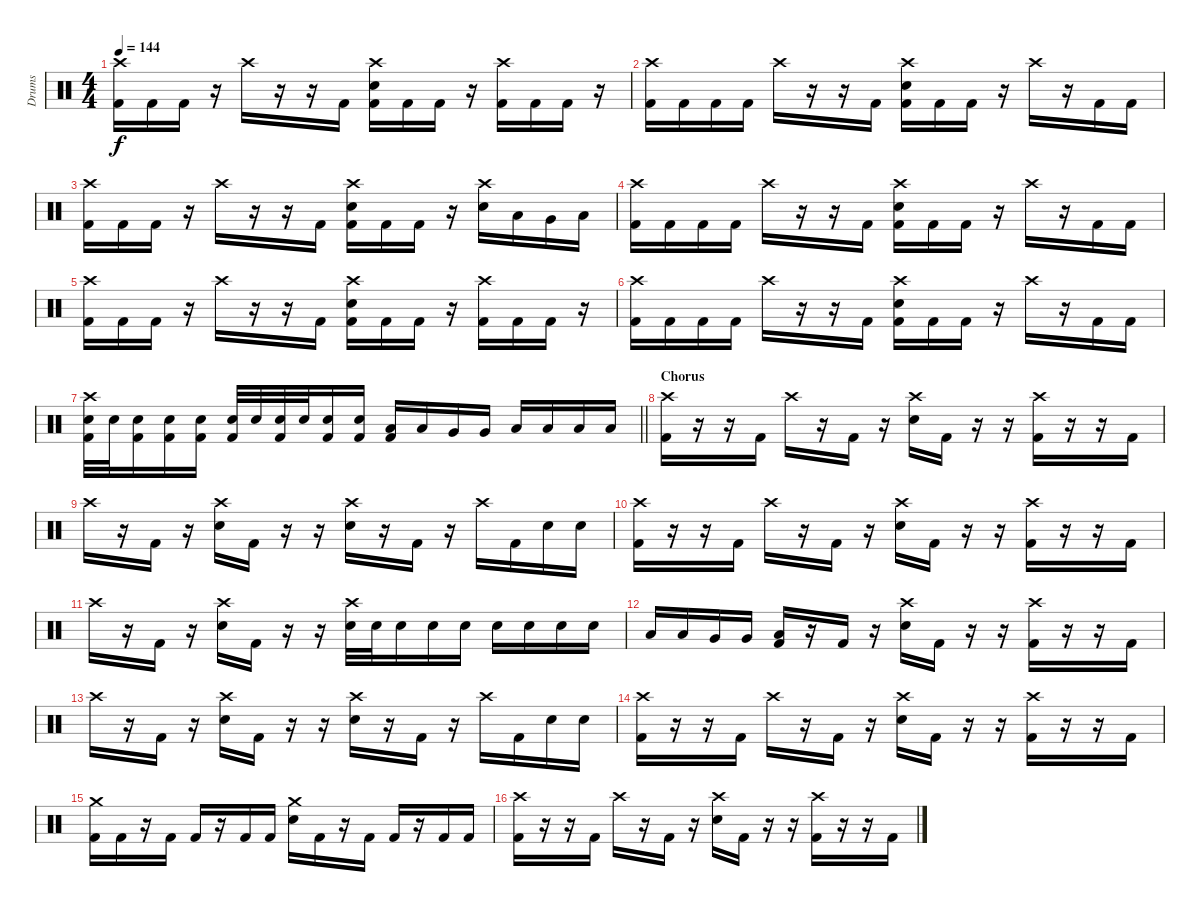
\track ("Drums" "Drums") {instrument percussion}
\staff {score}
\articulation defaults
\ts (4 4)
\tempo 144
\clef neutral
\ks c
("Crash high (hit)" "Kick (hit) 2").16{dy f} "Kick (hit) 2".16 "Kick (hit) 2".16 r.16 "Crash high (hit)".16 r.16 r.16 "Kick (hit) 2".16 ("Crash high (hit)" "Snare (hit) 2" "Kick (hit) 2").16 "Kick (hit) 2".16 "Kick (hit) 2".16 r.16 ("Crash high (hit)" "Kick (hit) 2").16 "Kick (hit) 2".16 "Kick (hit) 2".16 r.16 |
("Crash high (hit)" "Kick (hit) 2").16 "Kick (hit) 2".16 "Kick (hit) 2".16 "Kick (hit) 2".16 "Crash high (hit)".16 r.16 r.16 "Kick (hit) 2".16 ("Crash high (hit)" "Snare (hit) 2" "Kick (hit) 2").16 "Kick (hit) 2".16 "Kick (hit) 2".16 r.16 "Crash high (hit)".16 r.16 "Kick (hit) 2".16 "Kick (hit) 2".16 |
("Crash high (hit)" "Kick (hit) 2").16 "Kick (hit) 2".16 "Kick (hit) 2".16 r.16 "Crash high (hit)".16 r.16 r.16 "Kick (hit) 2".16 ("Crash high (hit)" "Snare (hit) 2" "Kick (hit) 2").16 "Kick (hit) 2".16 "Kick (hit) 2".16 r.16 ("Crash high (hit)" "Snare (hit) 2").16 "Low Tom (hit)".16 "Very Low Tom (hit)".16 "Low Floor Tom (hit)".16 |
("Crash high (hit)" "Kick (hit) 2").16 "Kick (hit) 2".16 "Kick (hit) 2".16 "Kick (hit) 2".16 "Crash high (hit)".16 r.16 r.16 "Kick (hit) 2".16 ("Crash high (hit)" "Snare (hit) 2" "Kick (hit) 2").16 "Kick (hit) 2".16 "Kick (hit) 2".16 r.16 "Crash high (hit)".16 r.16 "Kick (hit) 2".16 "Kick (hit) 2".16 |
("Crash high (hit)" "Kick (hit) 2").16 "Kick (hit) 2".16 "Kick (hit) 2".16 r.16 "Crash high (hit)".16 r.16 r.16 "Kick (hit) 2".16 ("Crash high (hit)" "Snare (hit) 2" "Kick (hit) 2").16 "Kick (hit) 2".16 "Kick (hit) 2".16 r.16 ("Crash high (hit)" "Kick (hit) 2").16 "Kick (hit) 2".16 "Kick (hit) 2".16 r.16 |
("Crash high (hit)" "Kick (hit) 2").16 "Kick (hit) 2".16 "Kick (hit) 2".16 "Kick (hit) 2".16 "Crash high (hit)".16 r.16 r.16 "Kick (hit) 2".16 ("Crash high (hit)" "Snare (hit) 2" "Kick (hit) 2").16 "Kick (hit) 2".16 "Kick (hit) 2".16 r.16 "Crash high (hit)".16 r.16 "Kick (hit) 2".16 "Kick (hit) 2".16 |
\barLineRight lightlight
("Crash high (hit)" "Snare (hit) 2" "Kick (hit) 2").32 "Snare (hit) 2".32 ("Snare (hit) 2" "Kick (hit) 2").16 ("Snare (hit) 2" "Kick (hit) 2").16 ("Snare (hit) 2" "Kick (hit) 2").16 ("Snare (hit) 2" "Kick (hit) 2").32 "Snare (hit) 2".32 ("Snare (hit) 2" "Kick (hit) 2").32 "Snare (hit) 2".32 ("Snare (hit) 2" "Kick (hit) 2").16 ("Snare (hit) 2" "Kick (hit) 2").16 ("Low Tom (hit)" "Kick (hit) 2").16 "Low Tom (hit)".16 "Very Low Tom (hit)".16 "Very Low Tom (hit)".16 "Low Floor Tom (hit)".16 "Low Floor Tom (hit)".16 "Low Floor Tom (hit)".16 "Low Floor Tom (hit)".16 |
\section ("" "Chorus")
("Crash high (hit)" "Kick (hit) 2").16 r.16 r.16 "Kick (hit) 2".16 "Crash high (hit)".16 r.16 "Kick (hit) 2".16 r.16 ("Crash high (hit)" "Snare (hit) 2").16 "Kick (hit) 2".16 r.16 r.16 ("Crash high (hit)" "Kick (hit) 2").16 r.16 r.16 "Kick (hit) 2".16 |
"Crash high (hit)".16 r.16 "Kick (hit) 2".16 r.16 ("Crash high (hit)" "Snare (hit) 2").16 "Kick (hit) 2".16 r.16 r.16 ("Crash high (hit)" "Snare (hit) 2").16 r.16 "Kick (hit) 2".16 r.16 "Crash high (hit)".16 "Kick (hit) 2".16 "Snare (hit) 2".16 "Snare (hit) 2".16 |
("Crash high (hit)" "Kick (hit) 2").16 r.16 r.16 "Kick (hit) 2".16 "Crash high (hit)".16 r.16 "Kick (hit) 2".16 r.16 ("Crash high (hit)" "Snare (hit) 2").16 "Kick (hit) 2".16 r.16 r.16 ("Crash high (hit)" "Kick (hit) 2").16 r.16 r.16 "Kick (hit) 2".16 |
"Crash high (hit)".16 r.16 "Kick (hit) 2".16 r.16 ("Crash high (hit)" "Snare (hit) 2").16 "Kick (hit) 2".16 r.16 r.16 ("Crash high (hit)" "Snare (hit) 2").32 "Snare (hit) 2".32 "Snare (hit) 2".16 "Snare (hit) 2".16 "Snare (hit) 2".16 "Snare (hit) 2".16 "Snare (hit) 2".16 "Snare (hit) 2".16 "Snare (hit) 2".16 |
"Low Tom (hit)".16 "Low Tom (hit)".16 "Very Low Tom (hit)".16 "Very Low Tom (hit)".16 ("Low Floor Tom (hit)" "Kick (hit) 2").16 r.16 "Kick (hit) 2".16 r.16 ("Crash high (hit)" "Snare (hit) 2").16 "Kick (hit) 2".16 r.16 r.16 ("Crash high (hit)" "Kick (hit) 2").16 r.16 r.16 "Kick (hit) 2".16 |
"Crash high (hit)".16 r.16 "Kick (hit) 2".16 r.16 ("Crash high (hit)" "Snare (hit) 2").16 "Kick (hit) 2".16 r.16 r.16 ("Crash high (hit)" "Snare (hit) 2").16 r.16 "Kick (hit) 2".16 r.16 "Crash high (hit)".16 "Kick (hit) 2".16 "Snare (hit) 2".16 "Snare (hit) 2".16 |
("Crash high (hit)" "Kick (hit) 2").16 r.16 r.16 "Kick (hit) 2".16 "Crash high (hit)".16 r.16 "Kick (hit) 2".16 r.16 ("Crash high (hit)" "Snare (hit) 2").16 "Kick (hit) 2".16 r.16 r.16 ("Crash high (hit)" "Kick (hit) 2").16 r.16 r.16 "Kick (hit) 2".16 |
("Crash medium (hit)" "Kick (hit) 2").16 "Kick (hit) 2".16 r.16 "Kick (hit) 2".16 "Kick (hit) 2".16 r.16 "Kick (hit) 2".16 "Kick (hit) 2".16 ("Crash medium (hit)" "Snare (hit) 2").16 "Kick (hit) 2".16 r.16 "Kick (hit) 2".16 "Kick (hit) 2".16 r.16 "Kick (hit) 2".16 "Kick (hit) 2".16 |
("Crash high (hit)" "Kick (hit) 2").16 r.16 r.16 "Kick (hit) 2".16 "Crash high (hit)".16 r.16 "Kick (hit) 2".16 r.16 ("Crash high (hit)" "Snare (hit) 2").16 "Kick (hit) 2".16 r.16 r.16 ("Crash high (hit)" "Kick (hit) 2").16 r.16 r.16 "Kick (hit) 2".16
